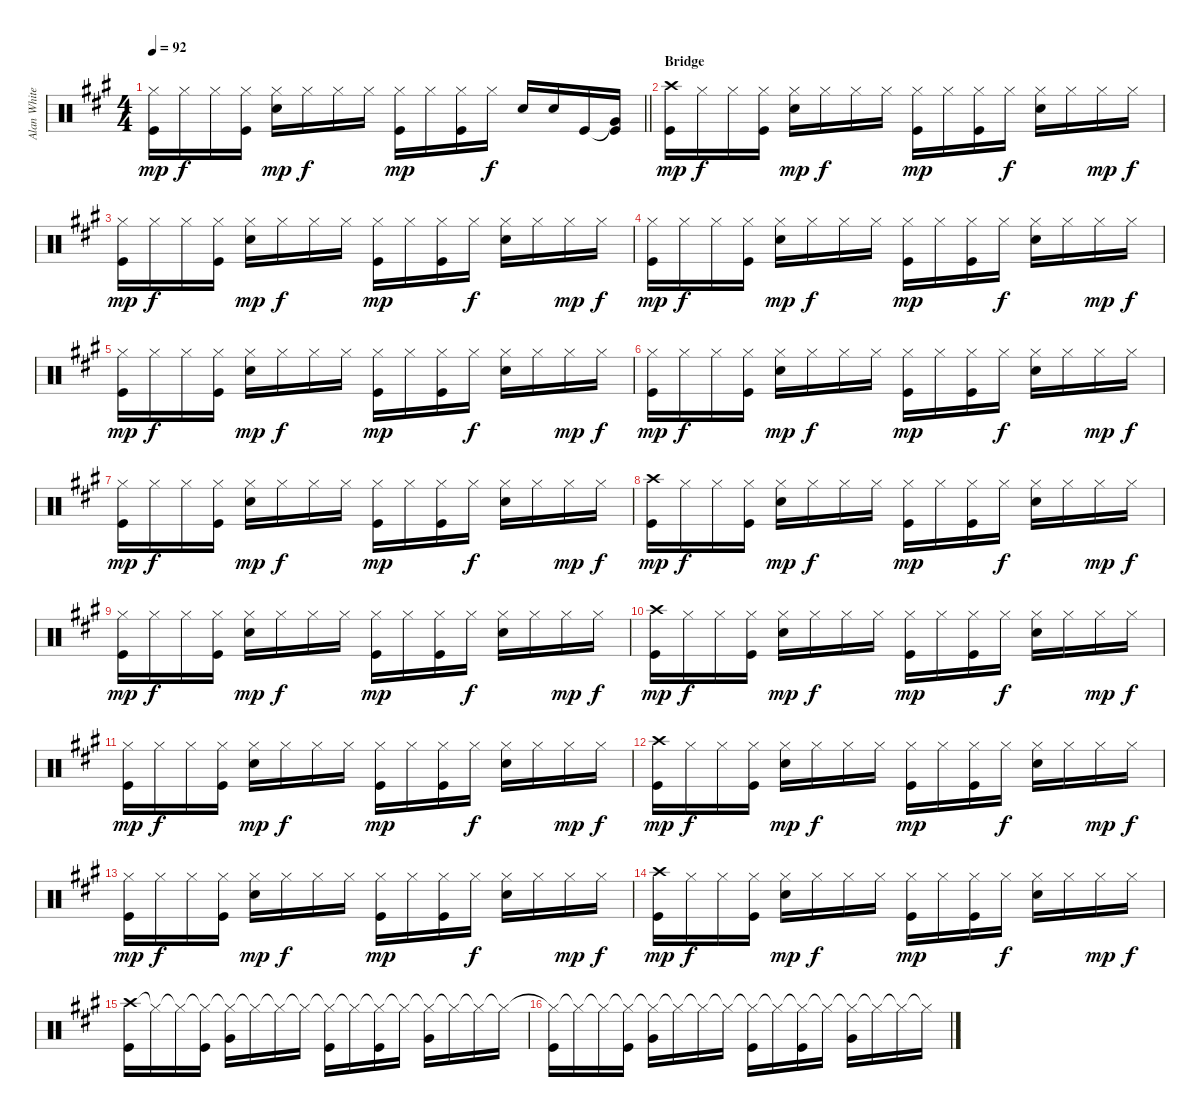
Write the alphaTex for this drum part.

\track ("Alan White" "Alan White") {instrument percussion}
\staff {score}
\articulation defaults
\ts (4 4)
\tempo 92
\clef neutral
\barLineRight lightlight
\ks a
("Hi-Hat (closed)" "Kick (hit)").16{dy mp} "Hi-Hat (closed)".16{dy f} "Hi-Hat (closed)".16 ("Hi-Hat (closed)" "Kick (hit)").16 ("Hi-Hat (closed)" "Snare (hit) 2").16{dy mp} "Hi-Hat (closed)".16{dy f} "Hi-Hat (closed)".16 "Hi-Hat (closed)".16 ("Hi-Hat (closed)" "Kick (hit)").16{dy mp} "Hi-Hat (closed)".16 ("Hi-Hat (closed)" "Kick (hit)").16 "Hi-Hat (closed)".16{dy f} "Snare (hit) 2".16 "Snare (hit) 2".16 "Kick (hit)".16 ("Very Low Tom (hit)"{t} "Kick (hit)").16 |
\section ("" "Bridge")
("Crash high (hit)" "Kick (hit)").16{dy mp} "Hi-Hat (closed)".16{dy f} "Hi-Hat (closed)".16 ("Hi-Hat (closed)" "Kick (hit)").16 ("Hi-Hat (closed)" "Snare (hit) 2").16{dy mp} "Hi-Hat (closed)".16{dy f} "Hi-Hat (closed)".16 "Hi-Hat (closed)".16 ("Hi-Hat (closed)" "Kick (hit)").16{dy mp} "Hi-Hat (closed)".16 ("Hi-Hat (closed)" "Kick (hit)").16 "Hi-Hat (closed)".16{dy f} ("Hi-Hat (closed)" "Snare (hit) 2").16 "Hi-Hat (closed)".16 "Hi-Hat (closed)".16{dy mp} "Hi-Hat (closed)".16{dy f} |
("Hi-Hat (closed)" "Kick (hit)").16{dy mp} "Hi-Hat (closed)".16{dy f} "Hi-Hat (closed)".16 ("Hi-Hat (closed)" "Kick (hit)").16 ("Hi-Hat (closed)" "Snare (hit) 2").16{dy mp} "Hi-Hat (closed)".16{dy f} "Hi-Hat (closed)".16 "Hi-Hat (closed)".16 ("Hi-Hat (closed)" "Kick (hit)").16{dy mp} "Hi-Hat (closed)".16 ("Hi-Hat (closed)" "Kick (hit)").16 "Hi-Hat (closed)".16{dy f} ("Hi-Hat (closed)" "Snare (hit) 2").16 "Hi-Hat (closed)".16 "Hi-Hat (closed)".16{dy mp} "Hi-Hat (closed)".16{dy f} |
("Hi-Hat (closed)" "Kick (hit)").16{dy mp} "Hi-Hat (closed)".16{dy f} "Hi-Hat (closed)".16 ("Hi-Hat (closed)" "Kick (hit)").16 ("Hi-Hat (closed)" "Snare (hit) 2").16{dy mp} "Hi-Hat (closed)".16{dy f} "Hi-Hat (closed)".16 "Hi-Hat (closed)".16 ("Hi-Hat (closed)" "Kick (hit)").16{dy mp} "Hi-Hat (closed)".16 ("Hi-Hat (closed)" "Kick (hit)").16 "Hi-Hat (closed)".16{dy f} ("Hi-Hat (closed)" "Snare (hit) 2").16 "Hi-Hat (closed)".16 "Hi-Hat (closed)".16{dy mp} "Hi-Hat (closed)".16{dy f} |
("Hi-Hat (closed)" "Kick (hit)").16{dy mp} "Hi-Hat (closed)".16{dy f} "Hi-Hat (closed)".16 ("Hi-Hat (closed)" "Kick (hit)").16 ("Hi-Hat (closed)" "Snare (hit) 2").16{dy mp} "Hi-Hat (closed)".16{dy f} "Hi-Hat (closed)".16 "Hi-Hat (closed)".16 ("Hi-Hat (closed)" "Kick (hit)").16{dy mp} "Hi-Hat (closed)".16 ("Hi-Hat (closed)" "Kick (hit)").16 "Hi-Hat (closed)".16{dy f} ("Hi-Hat (closed)" "Snare (hit) 2").16 "Hi-Hat (closed)".16 "Hi-Hat (closed)".16{dy mp} "Hi-Hat (closed)".16{dy f} |
("Hi-Hat (closed)" "Kick (hit)").16{dy mp} "Hi-Hat (closed)".16{dy f} "Hi-Hat (closed)".16 ("Hi-Hat (closed)" "Kick (hit)").16 ("Hi-Hat (closed)" "Snare (hit) 2").16{dy mp} "Hi-Hat (closed)".16{dy f} "Hi-Hat (closed)".16 "Hi-Hat (closed)".16 ("Hi-Hat (closed)" "Kick (hit)").16{dy mp} "Hi-Hat (closed)".16 ("Hi-Hat (closed)" "Kick (hit)").16 "Hi-Hat (closed)".16{dy f} ("Hi-Hat (closed)" "Snare (hit) 2").16 "Hi-Hat (closed)".16 "Hi-Hat (closed)".16{dy mp} "Hi-Hat (closed)".16{dy f} |
("Hi-Hat (closed)" "Kick (hit)").16{dy mp} "Hi-Hat (closed)".16{dy f} "Hi-Hat (closed)".16 ("Hi-Hat (closed)" "Kick (hit)").16 ("Hi-Hat (closed)" "Snare (hit) 2").16{dy mp} "Hi-Hat (closed)".16{dy f} "Hi-Hat (closed)".16 "Hi-Hat (closed)".16 ("Hi-Hat (closed)" "Kick (hit)").16{dy mp} "Hi-Hat (closed)".16 ("Hi-Hat (closed)" "Kick (hit)").16 "Hi-Hat (closed)".16{dy f} ("Hi-Hat (closed)" "Snare (hit) 2").16 "Hi-Hat (closed)".16 "Hi-Hat (closed)".16{dy mp} "Hi-Hat (closed)".16{dy f} |
("Crash high (hit)" "Kick (hit)").16{dy mp} "Hi-Hat (closed)".16{dy f} "Hi-Hat (closed)".16 ("Hi-Hat (closed)" "Kick (hit)").16 ("Hi-Hat (closed)" "Snare (hit) 2").16{dy mp} "Hi-Hat (closed)".16{dy f} "Hi-Hat (closed)".16 "Hi-Hat (closed)".16 ("Hi-Hat (closed)" "Kick (hit)").16{dy mp} "Hi-Hat (closed)".16 ("Hi-Hat (closed)" "Kick (hit)").16 "Hi-Hat (closed)".16{dy f} ("Hi-Hat (closed)" "Snare (hit) 2").16 "Hi-Hat (closed)".16 "Hi-Hat (closed)".16{dy mp} "Hi-Hat (closed)".16{dy f} |
("Hi-Hat (closed)" "Kick (hit)").16{dy mp} "Hi-Hat (closed)".16{dy f} "Hi-Hat (closed)".16 ("Hi-Hat (closed)" "Kick (hit)").16 ("Hi-Hat (closed)" "Snare (hit) 2").16{dy mp} "Hi-Hat (closed)".16{dy f} "Hi-Hat (closed)".16 "Hi-Hat (closed)".16 ("Hi-Hat (closed)" "Kick (hit)").16{dy mp} "Hi-Hat (closed)".16 ("Hi-Hat (closed)" "Kick (hit)").16 "Hi-Hat (closed)".16{dy f} ("Hi-Hat (closed)" "Snare (hit) 2").16 "Hi-Hat (closed)".16 "Hi-Hat (closed)".16{dy mp} "Hi-Hat (closed)".16{dy f} |
("Crash high (hit)" "Kick (hit)").16{dy mp} "Hi-Hat (closed)".16{dy f} "Hi-Hat (closed)".16 ("Hi-Hat (closed)" "Kick (hit)").16 ("Hi-Hat (closed)" "Snare (hit) 2").16{dy mp} "Hi-Hat (closed)".16{dy f} "Hi-Hat (closed)".16 "Hi-Hat (closed)".16 ("Hi-Hat (closed)" "Kick (hit)").16{dy mp} "Hi-Hat (closed)".16 ("Hi-Hat (closed)" "Kick (hit)").16 "Hi-Hat (closed)".16{dy f} ("Hi-Hat (closed)" "Snare (hit) 2").16 "Hi-Hat (closed)".16 "Hi-Hat (closed)".16{dy mp} "Hi-Hat (closed)".16{dy f} |
("Hi-Hat (closed)" "Kick (hit)").16{dy mp} "Hi-Hat (closed)".16{dy f} "Hi-Hat (closed)".16 ("Hi-Hat (closed)" "Kick (hit)").16 ("Hi-Hat (closed)" "Snare (hit) 2").16{dy mp} "Hi-Hat (closed)".16{dy f} "Hi-Hat (closed)".16 "Hi-Hat (closed)".16 ("Hi-Hat (closed)" "Kick (hit)").16{dy mp} "Hi-Hat (closed)".16 ("Hi-Hat (closed)" "Kick (hit)").16 "Hi-Hat (closed)".16{dy f} ("Hi-Hat (closed)" "Snare (hit) 2").16 "Hi-Hat (closed)".16 "Hi-Hat (closed)".16{dy mp} "Hi-Hat (closed)".16{dy f} |
("Crash high (hit)" "Kick (hit)").16{dy mp} "Hi-Hat (closed)".16{dy f} "Hi-Hat (closed)".16 ("Hi-Hat (closed)" "Kick (hit)").16 ("Hi-Hat (closed)" "Snare (hit) 2").16{dy mp} "Hi-Hat (closed)".16{dy f} "Hi-Hat (closed)".16 "Hi-Hat (closed)".16 ("Hi-Hat (closed)" "Kick (hit)").16{dy mp} "Hi-Hat (closed)".16 ("Hi-Hat (closed)" "Kick (hit)").16 "Hi-Hat (closed)".16{dy f} ("Hi-Hat (closed)" "Snare (hit) 2").16 "Hi-Hat (closed)".16 "Hi-Hat (closed)".16{dy mp} "Hi-Hat (closed)".16{dy f} |
("Hi-Hat (closed)" "Kick (hit)").16{dy mp} "Hi-Hat (closed)".16{dy f} "Hi-Hat (closed)".16 ("Hi-Hat (closed)" "Kick (hit)").16 ("Hi-Hat (closed)" "Snare (hit) 2").16{dy mp} "Hi-Hat (closed)".16{dy f} "Hi-Hat (closed)".16 "Hi-Hat (closed)".16 ("Hi-Hat (closed)" "Kick (hit)").16{dy mp} "Hi-Hat (closed)".16 ("Hi-Hat (closed)" "Kick (hit)").16 "Hi-Hat (closed)".16{dy f} ("Hi-Hat (closed)" "Snare (hit) 2").16 "Hi-Hat (closed)".16 "Hi-Hat (closed)".16{dy mp} "Hi-Hat (closed)".16{dy f} |
("Crash high (hit)" "Kick (hit)").16{dy mp} "Hi-Hat (closed)".16{dy f} "Hi-Hat (closed)".16 ("Hi-Hat (closed)" "Kick (hit)").16 ("Hi-Hat (closed)" "Snare (hit) 2").16{dy mp} "Hi-Hat (closed)".16{dy f} "Hi-Hat (closed)".16 "Hi-Hat (closed)".16 ("Hi-Hat (closed)" "Kick (hit)").16{dy mp} "Hi-Hat (closed)".16 ("Hi-Hat (closed)" "Kick (hit)").16 "Hi-Hat (closed)".16{dy f} ("Hi-Hat (closed)" "Snare (hit) 2").16 "Hi-Hat (closed)".16 "Hi-Hat (closed)".16{dy mp} "Hi-Hat (closed)".16{dy f} |
("Crash high (hit)" "Kick (hit)").16 "Hi-Hat (closed)"{t}.16 "Hi-Hat (closed)"{t}.16 ("Hi-Hat (closed)"{t} "Kick (hit)").16 ("Hi-Hat (closed)"{t} "Very Low Tom (hit)").16 "Hi-Hat (closed)"{t}.16 "Hi-Hat (closed)"{t}.16 "Hi-Hat (closed)"{t}.16 ("Hi-Hat (closed)"{t} "Kick (hit)").16 "Hi-Hat (closed)"{t}.16 ("Hi-Hat (closed)"{t} "Kick (hit)").16 "Hi-Hat (closed)"{t}.16 ("Hi-Hat (closed)"{t} "Very Low Tom (hit)").16 "Hi-Hat (closed)"{t}.16 "Hi-Hat (closed)"{t}.16 "Hi-Hat (closed)"{t}.16 |
("Hi-Hat (closed)"{t} "Kick (hit)").16 "Hi-Hat (closed)"{t}.16 "Hi-Hat (closed)"{t}.16 ("Hi-Hat (closed)"{t} "Kick (hit)").16 ("Hi-Hat (closed)"{t} "Very Low Tom (hit)").16 "Hi-Hat (closed)"{t}.16 "Hi-Hat (closed)"{t}.16 "Hi-Hat (closed)"{t}.16 ("Hi-Hat (closed)"{t} "Kick (hit)").16 "Hi-Hat (closed)"{t}.16 ("Hi-Hat (closed)"{t} "Kick (hit)").16 "Hi-Hat (closed)"{t}.16 ("Hi-Hat (closed)"{t} "Very Low Tom (hit)").16 "Hi-Hat (closed)"{t}.16 "Hi-Hat (closed)"{t}.16 "Hi-Hat (closed)"{t}.16
